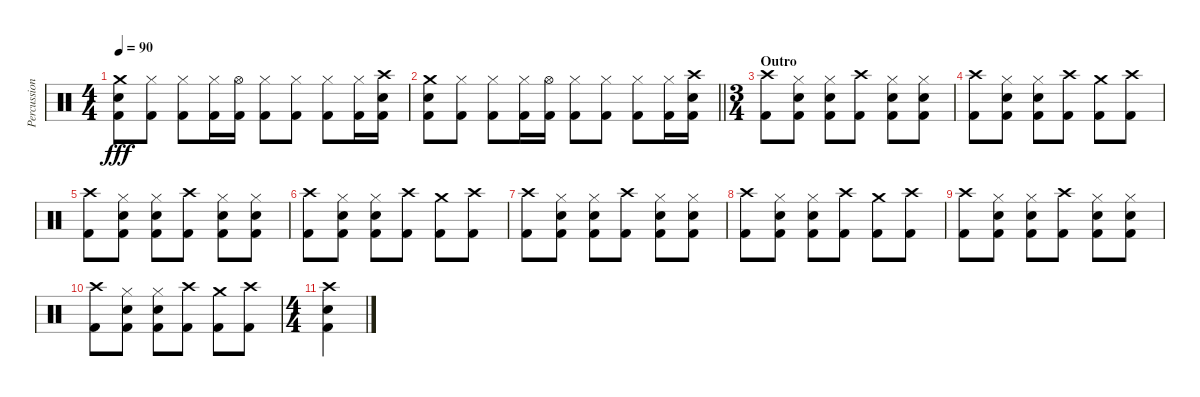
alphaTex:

\track ("Percussion" "Percussion") {instrument percussion}
\staff {score}
\articulation defaults
\ts (4 4)
\tempo 90
\clef neutral
\ks c
("Crash medium (hit)" "Electric Snare (hit)" "Kick (hit) 2").8{dy fff} ("Hi-Hat (closed)" "Kick (hit) 2").8 ("Hi-Hat (closed)" "Kick (hit) 2").8 ("Hi-Hat (closed)" "Kick (hit) 2").16 ("Hi-Hat (open)" "Kick (hit) 2").16 ("Hi-Hat (closed)" "Kick (hit) 2").8 ("Hi-Hat (closed)" "Kick (hit) 2").8 ("Hi-Hat (closed)" "Kick (hit) 2").8 ("Hi-Hat (closed)" "Kick (hit) 2").16 ("Crash high (hit)" "Electric Snare (hit)" "Kick (hit) 2").16 |
\barLineRight lightlight
("Crash medium (hit)" "Electric Snare (hit)" "Kick (hit) 2").8 ("Hi-Hat (closed)" "Kick (hit) 2").8 ("Hi-Hat (closed)" "Kick (hit) 2").8 ("Hi-Hat (closed)" "Kick (hit) 2").16 ("Hi-Hat (open)" "Kick (hit) 2").16 ("Hi-Hat (closed)" "Kick (hit) 2").8 ("Hi-Hat (closed)" "Kick (hit) 2").8 ("Hi-Hat (closed)" "Kick (hit) 2").8 ("Hi-Hat (closed)" "Kick (hit) 2").16 ("Crash high (hit)" "Electric Snare (hit)" "Kick (hit) 2").16 |
\ts (3 4)
\section ("" "Outro")
("Crash high (hit)" "Kick (hit) 2").8 ("Hi-Hat (closed)" "Electric Snare (hit)" "Kick (hit) 2").8 ("Hi-Hat (closed)" "Electric Snare (hit)" "Kick (hit) 2").8 ("Crash high (hit)" "Kick (hit) 2").8 ("Hi-Hat (closed)" "Electric Snare (hit)" "Kick (hit) 2").8 ("Hi-Hat (closed)" "Electric Snare (hit)" "Kick (hit) 2").8 |
("Crash high (hit)" "Kick (hit) 2").8 ("Hi-Hat (closed)" "Electric Snare (hit)" "Kick (hit) 2").8 ("Hi-Hat (closed)" "Electric Snare (hit)" "Kick (hit) 2").8 ("Crash high (hit)" "Kick (hit) 2").8 ("Crash medium (hit)" "Kick (hit) 2").8 ("Crash high (hit)" "Kick (hit) 2").8 |
("Crash high (hit)" "Kick (hit) 2").8 ("Hi-Hat (closed)" "Electric Snare (hit)" "Kick (hit) 2").8 ("Hi-Hat (closed)" "Electric Snare (hit)" "Kick (hit) 2").8 ("Crash high (hit)" "Kick (hit) 2").8 ("Hi-Hat (closed)" "Electric Snare (hit)" "Kick (hit) 2").8 ("Hi-Hat (closed)" "Electric Snare (hit)" "Kick (hit) 2").8 |
("Crash high (hit)" "Kick (hit) 2").8 ("Hi-Hat (closed)" "Electric Snare (hit)" "Kick (hit) 2").8 ("Hi-Hat (closed)" "Electric Snare (hit)" "Kick (hit) 2").8 ("Crash high (hit)" "Kick (hit) 2").8 ("Crash medium (hit)" "Kick (hit) 2").8 ("Crash high (hit)" "Kick (hit) 2").8 |
("Crash high (hit)" "Kick (hit) 2").8 ("Hi-Hat (closed)" "Electric Snare (hit)" "Kick (hit) 2").8 ("Hi-Hat (closed)" "Electric Snare (hit)" "Kick (hit) 2").8 ("Crash high (hit)" "Kick (hit) 2").8 ("Hi-Hat (closed)" "Electric Snare (hit)" "Kick (hit) 2").8 ("Hi-Hat (closed)" "Electric Snare (hit)" "Kick (hit) 2").8 |
("Crash high (hit)" "Kick (hit) 2").8 ("Hi-Hat (closed)" "Electric Snare (hit)" "Kick (hit) 2").8 ("Hi-Hat (closed)" "Electric Snare (hit)" "Kick (hit) 2").8 ("Crash high (hit)" "Kick (hit) 2").8 ("Crash medium (hit)" "Kick (hit) 2").8 ("Crash high (hit)" "Kick (hit) 2").8 |
("Crash high (hit)" "Kick (hit) 2").8 ("Hi-Hat (closed)" "Electric Snare (hit)" "Kick (hit) 2").8 ("Hi-Hat (closed)" "Electric Snare (hit)" "Kick (hit) 2").8 ("Crash high (hit)" "Kick (hit) 2").8 ("Hi-Hat (closed)" "Electric Snare (hit)" "Kick (hit) 2").8 ("Hi-Hat (closed)" "Electric Snare (hit)" "Kick (hit) 2").8 |
("Crash high (hit)" "Kick (hit) 2").8 ("Hi-Hat (closed)" "Electric Snare (hit)" "Kick (hit) 2").8 ("Hi-Hat (closed)" "Electric Snare (hit)" "Kick (hit) 2").8 ("Crash high (hit)" "Kick (hit) 2").8 ("Crash medium (hit)" "Kick (hit) 2").8 ("Crash high (hit)" "Kick (hit) 2").8 |
\ts (4 4)
("Crash high (hit)" "Electric Snare (hit)" "Kick (hit) 2").4
